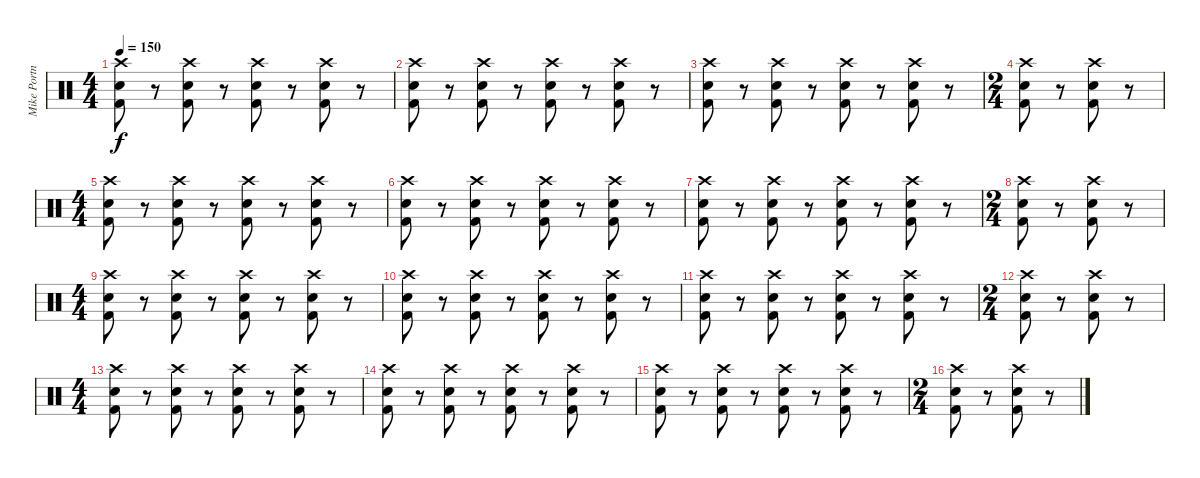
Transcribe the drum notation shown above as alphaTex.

\track ("Mike Portnoy" "Mike Portn") {instrument percussion}
\staff {score}
\articulation defaults
\ts (4 4)
\tempo 150
\clef neutral
\ks c
("Crash high (hit)" "Electric Snare (hit)" "Kick (hit) 2").8{dy f} r.8 ("Crash high (hit)" "Electric Snare (hit)" "Kick (hit) 2").8 r.8 ("Crash high (hit)" "Electric Snare (hit)" "Kick (hit) 2").8 r.8 ("Crash high (hit)" "Electric Snare (hit)" "Kick (hit) 2").8 r.8 |
("Crash high (hit)" "Electric Snare (hit)" "Kick (hit) 2").8 r.8 ("Crash high (hit)" "Electric Snare (hit)" "Kick (hit) 2").8 r.8 ("Crash high (hit)" "Electric Snare (hit)" "Kick (hit) 2").8 r.8 ("Crash high (hit)" "Electric Snare (hit)" "Kick (hit) 2").8 r.8 |
("Crash high (hit)" "Electric Snare (hit)" "Kick (hit) 2").8 r.8 ("Crash high (hit)" "Electric Snare (hit)" "Kick (hit) 2").8 r.8 ("Crash high (hit)" "Electric Snare (hit)" "Kick (hit) 2").8 r.8 ("Crash high (hit)" "Electric Snare (hit)" "Kick (hit) 2").8 r.8 |
\ts (2 4)
("Crash high (hit)" "Electric Snare (hit)" "Kick (hit) 2").8 r.8 ("Crash high (hit)" "Electric Snare (hit)" "Kick (hit) 2").8 r.8 |
\ts (4 4)
("Crash high (hit)" "Electric Snare (hit)" "Kick (hit) 2").8 r.8 ("Crash high (hit)" "Electric Snare (hit)" "Kick (hit) 2").8 r.8 ("Crash high (hit)" "Electric Snare (hit)" "Kick (hit) 2").8 r.8 ("Crash high (hit)" "Electric Snare (hit)" "Kick (hit) 2").8 r.8 |
("Crash high (hit)" "Electric Snare (hit)" "Kick (hit) 2").8 r.8 ("Crash high (hit)" "Electric Snare (hit)" "Kick (hit) 2").8 r.8 ("Crash high (hit)" "Electric Snare (hit)" "Kick (hit) 2").8 r.8 ("Crash high (hit)" "Electric Snare (hit)" "Kick (hit) 2").8 r.8 |
("Crash high (hit)" "Electric Snare (hit)" "Kick (hit) 2").8 r.8 ("Crash high (hit)" "Electric Snare (hit)" "Kick (hit) 2").8 r.8 ("Crash high (hit)" "Electric Snare (hit)" "Kick (hit) 2").8 r.8 ("Crash high (hit)" "Electric Snare (hit)" "Kick (hit) 2").8 r.8 |
\ts (2 4)
("Crash high (hit)" "Electric Snare (hit)" "Kick (hit) 2").8 r.8 ("Crash high (hit)" "Electric Snare (hit)" "Kick (hit) 2").8 r.8 |
\ts (4 4)
("Crash high (hit)" "Electric Snare (hit)" "Kick (hit) 2").8 r.8 ("Crash high (hit)" "Electric Snare (hit)" "Kick (hit) 2").8 r.8 ("Crash high (hit)" "Electric Snare (hit)" "Kick (hit) 2").8 r.8 ("Crash high (hit)" "Electric Snare (hit)" "Kick (hit) 2").8 r.8 |
("Crash high (hit)" "Electric Snare (hit)" "Kick (hit) 2").8 r.8 ("Crash high (hit)" "Electric Snare (hit)" "Kick (hit) 2").8 r.8 ("Crash high (hit)" "Electric Snare (hit)" "Kick (hit) 2").8 r.8 ("Crash high (hit)" "Electric Snare (hit)" "Kick (hit) 2").8 r.8 |
("Crash high (hit)" "Electric Snare (hit)" "Kick (hit) 2").8 r.8 ("Crash high (hit)" "Electric Snare (hit)" "Kick (hit) 2").8 r.8 ("Crash high (hit)" "Electric Snare (hit)" "Kick (hit) 2").8 r.8 ("Crash high (hit)" "Electric Snare (hit)" "Kick (hit) 2").8 r.8 |
\ts (2 4)
("Crash high (hit)" "Electric Snare (hit)" "Kick (hit) 2").8 r.8 ("Crash high (hit)" "Electric Snare (hit)" "Kick (hit) 2").8 r.8 |
\ts (4 4)
("Crash high (hit)" "Electric Snare (hit)" "Kick (hit) 2").8 r.8 ("Crash high (hit)" "Electric Snare (hit)" "Kick (hit) 2").8 r.8 ("Crash high (hit)" "Electric Snare (hit)" "Kick (hit) 2").8 r.8 ("Crash high (hit)" "Electric Snare (hit)" "Kick (hit) 2").8 r.8 |
("Crash high (hit)" "Electric Snare (hit)" "Kick (hit) 2").8 r.8 ("Crash high (hit)" "Electric Snare (hit)" "Kick (hit) 2").8 r.8 ("Crash high (hit)" "Electric Snare (hit)" "Kick (hit) 2").8 r.8 ("Crash high (hit)" "Electric Snare (hit)" "Kick (hit) 2").8 r.8 |
("Crash high (hit)" "Electric Snare (hit)" "Kick (hit) 2").8 r.8 ("Crash high (hit)" "Electric Snare (hit)" "Kick (hit) 2").8 r.8 ("Crash high (hit)" "Electric Snare (hit)" "Kick (hit) 2").8 r.8 ("Crash high (hit)" "Electric Snare (hit)" "Kick (hit) 2").8 r.8 |
\ts (2 4)
("Crash high (hit)" "Electric Snare (hit)" "Kick (hit) 2").8 r.8 ("Crash high (hit)" "Electric Snare (hit)" "Kick (hit) 2").8 r.8
